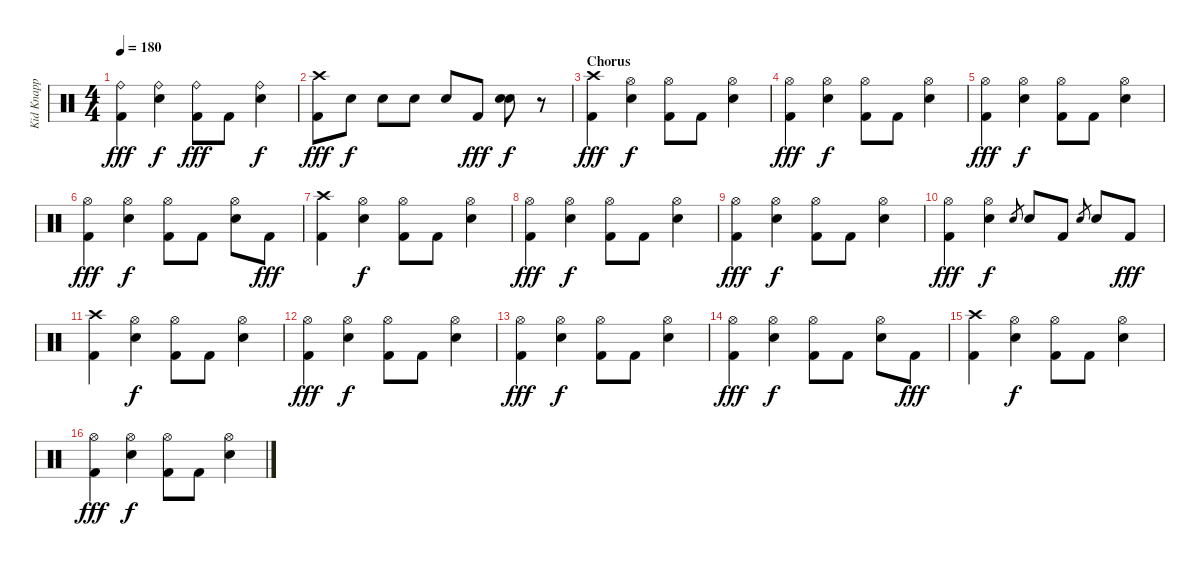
\track ("Kid Knapp (Drums)" "Kid Knapp ") {instrument percussion}
\staff {score}
\articulation defaults
\ts (4 4)
\tempo 180
\clef neutral
\ks c
("Ride (bell)" "Kick (hit) 2").4{dy fff} ("Ride (bell)" "Snare (hit) 2").4{dy f} ("Ride (bell)" "Kick (hit) 2").8{dy fff} "Kick (hit) 2".8 ("Ride (bell)" "Snare (hit) 2").4{dy f} |
("Crash high (hit)" "Kick (hit) 2").8{dy fff} "Snare (hit) 2".8{dy f} "Snare (hit) 2".8 "Snare (hit) 2".8 "Snare (hit) 2".8 "Kick (hit) 2".8{dy fff} ("Snare (hit) 2" "Snare (hit) 2").8{dy f} r.8 |
\section ("" "Chorus")
("Crash high (hit)" "Kick (hit) 2").4{dy fff} ("Hi-Hat (open)" "Snare (hit) 2").4{dy f} ("Hi-Hat (open)" "Kick (hit) 2").8 "Kick (hit) 2".8 ("Hi-Hat (open)" "Snare (hit) 2").4 |
("Hi-Hat (open)" "Kick (hit) 2").4{dy fff} ("Hi-Hat (open)" "Snare (hit) 2").4{dy f} ("Hi-Hat (open)" "Kick (hit) 2").8 "Kick (hit) 2".8 ("Hi-Hat (open)" "Snare (hit) 2").4 |
("Hi-Hat (open)" "Kick (hit) 2").4{dy fff} ("Hi-Hat (open)" "Snare (hit) 2").4{dy f} ("Hi-Hat (open)" "Kick (hit) 2").8 "Kick (hit) 2".8 ("Hi-Hat (open)" "Snare (hit) 2").4 |
("Hi-Hat (open)" "Kick (hit) 2").4{dy fff} ("Hi-Hat (open)" "Snare (hit) 2").4{dy f} ("Hi-Hat (open)" "Kick (hit) 2").8 "Kick (hit) 2".8 ("Hi-Hat (open)" "Snare (hit) 2").8 "Kick (hit) 2".8{dy fff} |
("Crash high (hit)" "Kick (hit) 2").4 ("Hi-Hat (open)" "Snare (hit) 2").4{dy f} ("Hi-Hat (open)" "Kick (hit) 2").8 "Kick (hit) 2".8 ("Hi-Hat (open)" "Snare (hit) 2").4 |
("Hi-Hat (open)" "Kick (hit) 2").4{dy fff} ("Hi-Hat (open)" "Snare (hit) 2").4{dy f} ("Hi-Hat (open)" "Kick (hit) 2").8 "Kick (hit) 2".8 ("Hi-Hat (open)" "Snare (hit) 2").4 |
("Hi-Hat (open)" "Kick (hit) 2").4{dy fff} ("Hi-Hat (open)" "Snare (hit) 2").4{dy f} ("Hi-Hat (open)" "Kick (hit) 2").8 "Kick (hit) 2".8 ("Hi-Hat (open)" "Snare (hit) 2").4 |
("Hi-Hat (open)" "Kick (hit) 2").4{dy fff} ("Hi-Hat (open)" "Snare (hit) 2").4{dy f} "Snare (hit) 2".8{gr} "Snare (hit) 2".8 "Kick (hit) 2".8 "Snare (hit) 2".8{gr} "Snare (hit) 2".8 "Kick (hit) 2".8{dy fff} |
("Crash high (hit)" "Kick (hit) 2").4 ("Hi-Hat (open)" "Snare (hit) 2").4{dy f} ("Hi-Hat (open)" "Kick (hit) 2").8 "Kick (hit) 2".8 ("Hi-Hat (open)" "Snare (hit) 2").4 |
("Hi-Hat (open)" "Kick (hit) 2").4{dy fff} ("Hi-Hat (open)" "Snare (hit) 2").4{dy f} ("Hi-Hat (open)" "Kick (hit) 2").8 "Kick (hit) 2".8 ("Hi-Hat (open)" "Snare (hit) 2").4 |
("Hi-Hat (open)" "Kick (hit) 2").4{dy fff} ("Hi-Hat (open)" "Snare (hit) 2").4{dy f} ("Hi-Hat (open)" "Kick (hit) 2").8 "Kick (hit) 2".8 ("Hi-Hat (open)" "Snare (hit) 2").4 |
("Hi-Hat (open)" "Kick (hit) 2").4{dy fff} ("Hi-Hat (open)" "Snare (hit) 2").4{dy f} ("Hi-Hat (open)" "Kick (hit) 2").8 "Kick (hit) 2".8 ("Hi-Hat (open)" "Snare (hit) 2").8 "Kick (hit) 2".8{dy fff} |
("Crash high (hit)" "Kick (hit) 2").4 ("Hi-Hat (open)" "Snare (hit) 2").4{dy f} ("Hi-Hat (open)" "Kick (hit) 2").8 "Kick (hit) 2".8 ("Hi-Hat (open)" "Snare (hit) 2").4 |
("Hi-Hat (open)" "Kick (hit) 2").4{dy fff} ("Hi-Hat (open)" "Snare (hit) 2").4{dy f} ("Hi-Hat (open)" "Kick (hit) 2").8 "Kick (hit) 2".8 ("Hi-Hat (open)" "Snare (hit) 2").4
